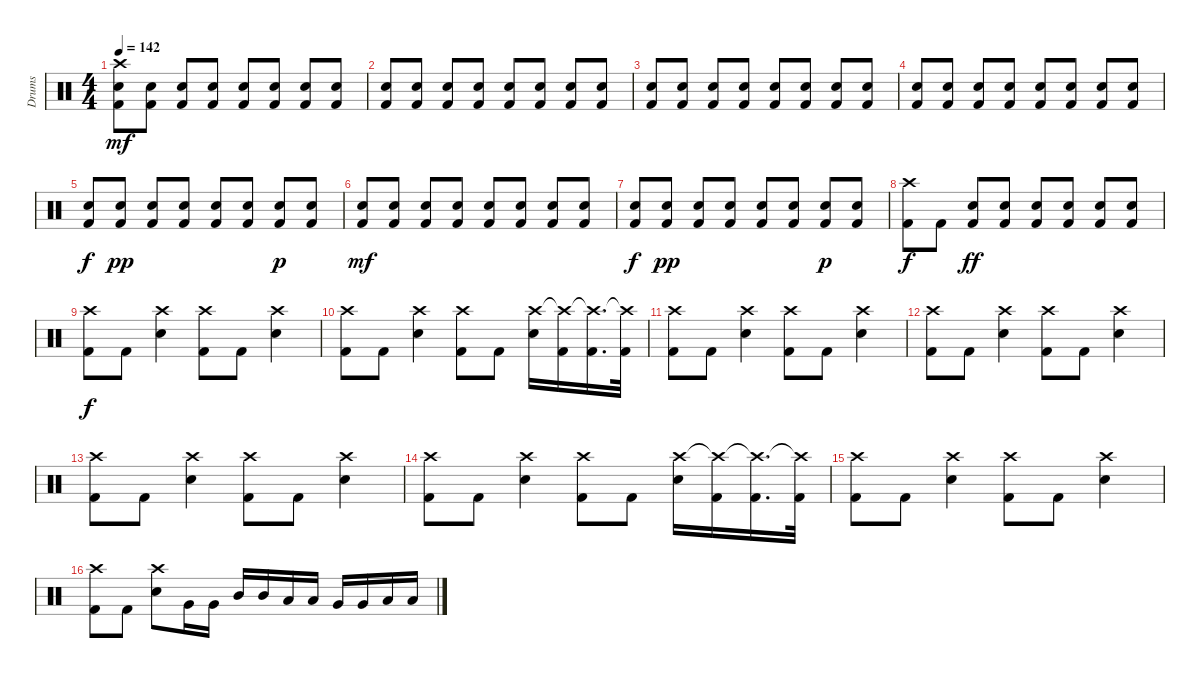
\track ("Drums" "Drums") {instrument percussion}
\staff {score}
\articulation defaults
\ts (4 4)
\tempo 142
\clef neutral
\ks c
("Crash high (hit)" "Snare (hit) 2" "Kick (hit) 2").8{dy mf} ("Snare (hit) 2" "Kick (hit) 2").8 ("Snare (hit) 2" "Kick (hit) 2").8 ("Snare (hit) 2" "Kick (hit) 2").8 ("Snare (hit) 2" "Kick (hit) 2").8 ("Snare (hit) 2" "Kick (hit) 2").8 ("Snare (hit) 2" "Kick (hit) 2").8 ("Snare (hit) 2" "Kick (hit) 2").8 |
("Snare (hit) 2" "Kick (hit) 2").8 ("Snare (hit) 2" "Kick (hit) 2").8 ("Snare (hit) 2" "Kick (hit) 2").8 ("Snare (hit) 2" "Kick (hit) 2").8 ("Snare (hit) 2" "Kick (hit) 2").8 ("Snare (hit) 2" "Kick (hit) 2").8 ("Snare (hit) 2" "Kick (hit) 2").8 ("Snare (hit) 2" "Kick (hit) 2").8 |
("Snare (hit) 2" "Kick (hit) 2").8 ("Snare (hit) 2" "Kick (hit) 2").8 ("Snare (hit) 2" "Kick (hit) 2").8 ("Snare (hit) 2" "Kick (hit) 2").8 ("Snare (hit) 2" "Kick (hit) 2").8 ("Snare (hit) 2" "Kick (hit) 2").8 ("Snare (hit) 2" "Kick (hit) 2").8 ("Snare (hit) 2" "Kick (hit) 2").8 |
("Snare (hit) 2" "Kick (hit) 2").8 ("Snare (hit) 2" "Kick (hit) 2").8 ("Snare (hit) 2" "Kick (hit) 2").8 ("Snare (hit) 2" "Kick (hit) 2").8 ("Snare (hit) 2" "Kick (hit) 2").8 ("Snare (hit) 2" "Kick (hit) 2").8 ("Snare (hit) 2" "Kick (hit) 2").8 ("Snare (hit) 2" "Kick (hit) 2").8 |
("Snare (hit) 2" "Kick (hit) 2").8{dy f} ("Snare (hit) 2" "Kick (hit) 2").8{dy pp} ("Snare (hit) 2" "Kick (hit) 2").8 ("Snare (hit) 2" "Kick (hit) 2").8 ("Snare (hit) 2" "Kick (hit) 2").8 ("Snare (hit) 2" "Kick (hit) 2").8 ("Snare (hit) 2" "Kick (hit) 2").8{dy p} ("Snare (hit) 2" "Kick (hit) 2").8 |
("Snare (hit) 2" "Kick (hit) 2").8{dy mf} ("Snare (hit) 2" "Kick (hit) 2").8 ("Snare (hit) 2" "Kick (hit) 2").8 ("Snare (hit) 2" "Kick (hit) 2").8 ("Snare (hit) 2" "Kick (hit) 2").8 ("Snare (hit) 2" "Kick (hit) 2").8 ("Snare (hit) 2" "Kick (hit) 2").8 ("Snare (hit) 2" "Kick (hit) 2").8 |
("Snare (hit) 2" "Kick (hit) 2").8{dy f} ("Snare (hit) 2" "Kick (hit) 2").8{dy pp} ("Snare (hit) 2" "Kick (hit) 2").8 ("Snare (hit) 2" "Kick (hit) 2").8 ("Snare (hit) 2" "Kick (hit) 2").8 ("Snare (hit) 2" "Kick (hit) 2").8 ("Snare (hit) 2" "Kick (hit) 2").8{dy p} ("Snare (hit) 2" "Kick (hit) 2").8 |
("Crash high (hit)" "Kick (hit) 2").8{dy f} "Kick (hit) 2".8 ("Snare (hit) 2" "Kick (hit) 2").8{dy ff} ("Snare (hit) 2" "Kick (hit) 2").8 ("Snare (hit) 2" "Kick (hit) 2").8 ("Snare (hit) 2" "Kick (hit) 2").8 ("Snare (hit) 2" "Kick (hit) 2").8 ("Snare (hit) 2" "Kick (hit) 2").8 |
("Crash high (hit)" "Kick (hit) 2").8{dy f} "Kick (hit) 2".8 ("Crash high (hit)" "Snare (hit) 2").4 ("Crash high (hit)" "Kick (hit) 2").8 "Kick (hit) 2".8 ("Crash high (hit)" "Snare (hit) 2").4 |
("Crash high (hit)" "Kick (hit) 2").8 "Kick (hit) 2".8 ("Crash high (hit)" "Snare (hit) 2").4 ("Crash high (hit)" "Kick (hit) 2").8 "Kick (hit) 2".8 ("Crash high (hit)" "Snare (hit) 2").16 ("Crash high (hit)"{t} "Kick (hit) 2").16 ("Crash high (hit)"{t} "Kick (hit) 2").16{d} ("Crash high (hit)"{t} "Kick (hit) 2").32 |
("Crash high (hit)" "Kick (hit) 2").8 "Kick (hit) 2".8 ("Crash high (hit)" "Snare (hit) 2").4 ("Crash high (hit)" "Kick (hit) 2").8 "Kick (hit) 2".8 ("Crash high (hit)" "Snare (hit) 2").4 |
("Crash high (hit)" "Kick (hit) 2").8 "Kick (hit) 2".8 ("Crash high (hit)" "Snare (hit) 2").4 ("Crash high (hit)" "Kick (hit) 2").8 "Kick (hit) 2".8 ("Crash high (hit)" "Snare (hit) 2").4 |
("Crash high (hit)" "Kick (hit) 2").8 "Kick (hit) 2".8 ("Crash high (hit)" "Snare (hit) 2").4 ("Crash high (hit)" "Kick (hit) 2").8 "Kick (hit) 2".8 ("Crash high (hit)" "Snare (hit) 2").4 |
("Crash high (hit)" "Kick (hit) 2").8 "Kick (hit) 2".8 ("Crash high (hit)" "Snare (hit) 2").4 ("Crash high (hit)" "Kick (hit) 2").8 "Kick (hit) 2".8 ("Crash high (hit)" "Snare (hit) 2").16 ("Crash high (hit)"{t} "Kick (hit) 2").16 ("Crash high (hit)"{t} "Kick (hit) 2").16{d} ("Crash high (hit)"{t} "Kick (hit) 2").32 |
("Crash high (hit)" "Kick (hit) 2").8 "Kick (hit) 2".8 ("Crash high (hit)" "Snare (hit) 2").4 ("Crash high (hit)" "Kick (hit) 2").8 "Kick (hit) 2".8 ("Crash high (hit)" "Snare (hit) 2").4 |
("Crash high (hit)" "Kick (hit) 2").8 "Kick (hit) 2".8 ("Crash high (hit)" "Snare (hit) 2").8 "Very Low Tom (hit)".16 "Very Low Tom (hit)".16 "Mid Tom (hit)".16 "Mid Tom (hit)".16 "Low Tom (hit)".16 "Low Tom (hit)".16 "Very Low Tom (hit)".16 "Very Low Tom (hit)".16 "Low Floor Tom (hit)".16 "Low Floor Tom (hit)".16
